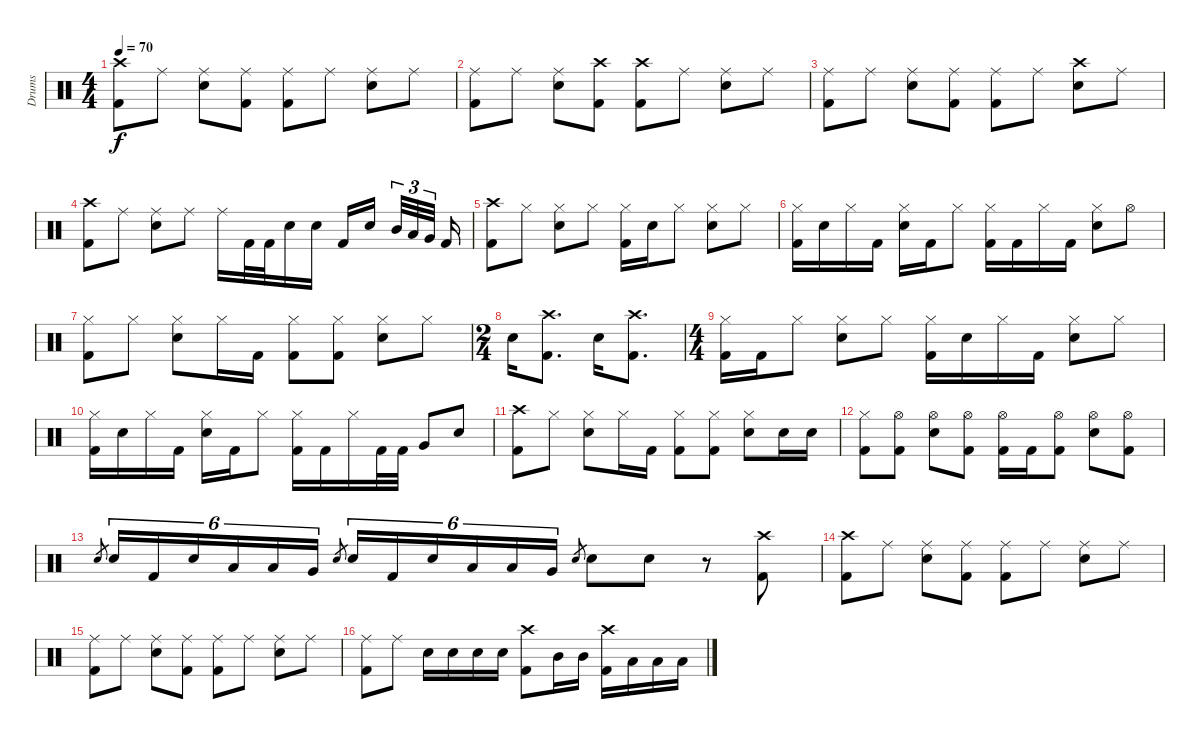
\track ("Drums" "Drums") {instrument percussion}
\staff {score}
\articulation defaults
\ts (4 4)
\tempo 70
\clef neutral
\ks c
("Crash high (hit)" "Kick (hit) 2").8{dy f} "Ride (middle)".8 ("Ride (middle)" "Electric Snare (hit)").8 ("Ride (middle)" "Kick (hit) 2").8 ("Ride (middle)" "Kick (hit) 2").8 "Ride (middle)".8 ("Ride (middle)" "Electric Snare (hit)").8 "Ride (middle)".8 |
("Ride (middle)" "Kick (hit) 2").8 "Ride (middle)".8 ("Ride (middle)" "Electric Snare (hit)").8 ("Crash high (hit)" "Kick (hit) 2").8 ("Crash high (hit)" "Kick (hit) 2").8 "Ride (middle)".8 ("Ride (middle)" "Electric Snare (hit)").8 "Ride (middle)".8 |
("Ride (middle)" "Kick (hit) 2").8 "Ride (middle)".8 ("Ride (middle)" "Electric Snare (hit)").8 ("Ride (middle)" "Kick (hit) 2").8 ("Ride (middle)" "Kick (hit) 2").8 "Ride (middle)".8 ("Crash high (hit)" "Electric Snare (hit)").8 "Ride (middle)".8 |
("Crash high (hit)" "Kick (hit) 2").8 "Ride (middle)".8 ("Ride (middle)" "Electric Snare (hit)").8 "Ride (middle)".8 "Ride (middle)".16 "Kick (hit) 2".32 "Kick (hit) 2".32 "Electric Snare (hit)".16 "Electric Snare (hit)".16 "Kick (hit) 2".16 "Electric Snare (hit)".16 "Mid Tom (hit)".32{tu (3 2)} "Low Tom (hit)".32{tu (3 2)} "Very Low Tom (hit)".32{tu (3 2)} "Kick (hit) 2".16 |
("Crash high (hit)" "Kick (hit) 2").8 "Hi-Hat (closed)".8 ("Hi-Hat (closed)" "Electric Snare (hit)").8 "Hi-Hat (closed)".8 ("Hi-Hat (closed)" "Kick (hit) 2").16 "Electric Snare (hit)".16 "Hi-Hat (closed)".8 ("Hi-Hat (closed)" "Electric Snare (hit)").8 "Hi-Hat (closed)".8 |
("Hi-Hat (closed)" "Kick (hit) 2").16 "Electric Snare (hit)".16 "Hi-Hat (closed)".16 "Kick (hit) 2".16 ("Hi-Hat (closed)" "Electric Snare (hit)").16 "Kick (hit) 2".16 "Hi-Hat (closed)".8 ("Hi-Hat (closed)" "Kick (hit) 2").16 "Kick (hit) 2".16 "Hi-Hat (closed)".16 "Kick (hit) 2".16 ("Hi-Hat (closed)" "Electric Snare (hit)").8 "Hi-Hat (open)".8 |
("Hi-Hat (closed)" "Kick (hit) 2").8 "Hi-Hat (closed)".8 ("Hi-Hat (closed)" "Electric Snare (hit)").8 "Hi-Hat (closed)".16 "Kick (hit) 2".16 ("Hi-Hat (closed)" "Kick (hit) 2").8 ("Hi-Hat (closed)" "Kick (hit) 2").8 ("Hi-Hat (closed)" "Electric Snare (hit)").8 "Hi-Hat (closed)".8 |
\ts (2 4)
"Electric Snare (hit)".16 ("Crash high (hit)" "Kick (hit) 2").8{d} "Electric Snare (hit)".16 ("Crash high (hit)" "Kick (hit) 2").8{d} |
\ts (4 4)
("Hi-Hat (closed)" "Kick (hit) 2").16 "Kick (hit) 2".16 "Hi-Hat (closed)".8 ("Hi-Hat (closed)" "Electric Snare (hit)").8 "Hi-Hat (closed)".8 ("Hi-Hat (closed)" "Kick (hit) 2").16 "Electric Snare (hit)".16 "Hi-Hat (closed)".16 "Kick (hit) 2".16 ("Hi-Hat (closed)" "Electric Snare (hit)").8 "Hi-Hat (closed)".8 |
("Hi-Hat (closed)" "Kick (hit) 2").16 "Electric Snare (hit)".16 "Hi-Hat (closed)".16 "Kick (hit) 2".16 ("Hi-Hat (closed)" "Electric Snare (hit)").16 "Kick (hit) 2".16 "Hi-Hat (closed)".8 ("Hi-Hat (closed)" "Kick (hit) 2").16 "Kick (hit) 2".16 "Hi-Hat (closed)".16 "Kick (hit) 2".32 "Kick (hit) 2".32 "Very Low Tom (hit)".8 "Electric Snare (hit)".8 |
("Crash high (hit)" "Kick (hit) 2").8 "Hi-Hat (closed)".8 ("Hi-Hat (closed)" "Electric Snare (hit)").8 "Hi-Hat (closed)".16 "Kick (hit) 2".16 ("Hi-Hat (closed)" "Kick (hit) 2").8 ("Hi-Hat (closed)" "Kick (hit) 2").8 ("Hi-Hat (closed)" "Electric Snare (hit)").8 "Electric Snare (hit)".16 "Electric Snare (hit)".16 |
("Hi-Hat (closed)" "Kick (hit) 2").8 ("Hi-Hat (open)" "Kick (hit) 2").8 ("Hi-Hat (open)" "Electric Snare (hit)").8 ("Hi-Hat (open)" "Kick (hit) 2").8 ("Hi-Hat (open)" "Kick (hit) 2").16 "Kick (hit) 2".16 ("Hi-Hat (open)" "Kick (hit) 2").8 ("Hi-Hat (open)" "Electric Snare (hit)").8 ("Hi-Hat (open)" "Kick (hit) 2").8 |
"Electric Snare (hit)".8{gr} "Electric Snare (hit)".16{tu (6 4)} "Kick (hit) 2".16{tu (6 4)} "Electric Snare (hit)".16{tu (6 4)} "Low Tom (hit)".16{tu (6 4)} "Low Tom (hit)".16{tu (6 4)} "Very Low Tom (hit)".16{tu (6 4)} "Electric Snare (hit)".8{gr} "Electric Snare (hit)".16{tu (6 4)} "Kick (hit) 2".16{tu (6 4)} "Electric Snare (hit)".16{tu (6 4)} "Low Tom (hit)".16{tu (6 4)} "Low Tom (hit)".16{tu (6 4)} "Very Low Tom (hit)".16{tu (6 4)} "Electric Snare (hit)".8{gr} "Electric Snare (hit)".8 "Electric Snare (hit)".8 r.8 ("Crash high (hit)" "Kick (hit) 2").8 |
("Crash high (hit)" "Kick (hit) 2").8 "Ride (middle)".8 ("Ride (middle)" "Electric Snare (hit)").8 ("Ride (middle)" "Kick (hit) 2").8 ("Ride (middle)" "Kick (hit) 2").8 "Ride (middle)".8 ("Ride (middle)" "Electric Snare (hit)").8 "Ride (middle)".8 |
("Ride (middle)" "Kick (hit) 2").8 "Ride (middle)".8 ("Ride (middle)" "Electric Snare (hit)").8 ("Ride (middle)" "Kick (hit) 2").8 ("Ride (middle)" "Kick (hit) 2").8 "Ride (middle)".8 ("Ride (middle)" "Electric Snare (hit)").8 "Ride (middle)".8 |
("Ride (middle)" "Kick (hit) 2").8 "Ride (middle)".8 "Electric Snare (hit)".16 "Electric Snare (hit)".16 "Electric Snare (hit)".16 "Electric Snare (hit)".16 ("Crash high (hit)" "Kick (hit) 2").8 "Mid Tom (hit)".16 "Mid Tom (hit)".16 ("Crash high (hit)" "Kick (hit) 2").16 "Low Tom (hit)".16 "Low Tom (hit)".16 "Low Tom (hit)".16
